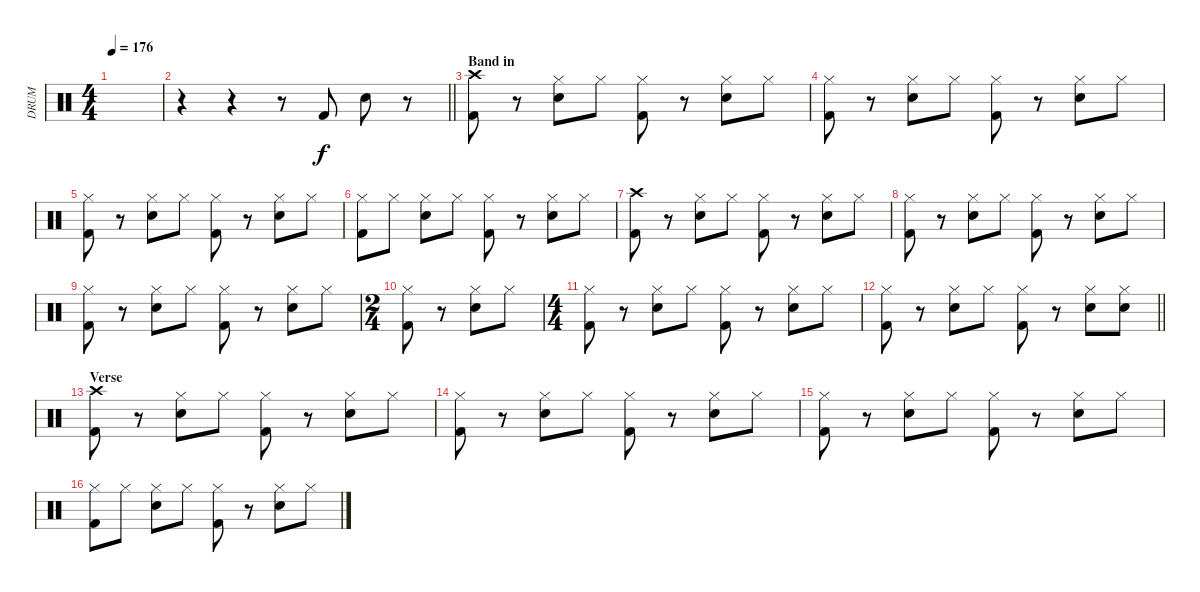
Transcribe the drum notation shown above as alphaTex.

\track ("DRUM" "DRUM") {instrument percussion}
\staff {score}
\articulation defaults
\ts (4 4)
\tempo 176
\clef neutral
\ks c
|
\barLineRight lightlight
r.4 r.4 r.8 "Kick (hit) 2".8 "Electric Snare (hit)".8 r.8 |
\section ("" "Band in")
("Crash high (hit)" "Kick (hit) 2").8 r.8 ("Hi-Hat (closed)" "Electric Snare (hit)").8 "Hi-Hat (closed)".8 ("Hi-Hat (closed)" "Kick (hit) 2").8 r.8 ("Hi-Hat (closed)" "Electric Snare (hit)").8 "Hi-Hat (closed)".8 |
("Hi-Hat (closed)" "Kick (hit) 2").8 r.8 ("Hi-Hat (closed)" "Electric Snare (hit)").8 "Hi-Hat (closed)".8 ("Hi-Hat (closed)" "Kick (hit) 2").8 r.8 ("Hi-Hat (closed)" "Electric Snare (hit)").8 "Hi-Hat (closed)".8 |
("Hi-Hat (closed)" "Kick (hit) 2").8 r.8 ("Hi-Hat (closed)" "Electric Snare (hit)").8 "Hi-Hat (closed)".8 ("Hi-Hat (closed)" "Kick (hit) 2").8 r.8 ("Hi-Hat (closed)" "Electric Snare (hit)").8 "Hi-Hat (closed)".8 |
("Hi-Hat (closed)" "Kick (hit) 2").8 "Hi-Hat (closed)".8 ("Hi-Hat (closed)" "Electric Snare (hit)").8 "Hi-Hat (closed)".8 ("Hi-Hat (closed)" "Kick (hit) 2").8 r.8 ("Hi-Hat (closed)" "Electric Snare (hit)").8 "Hi-Hat (closed)".8 |
("Crash high (hit)" "Kick (hit) 2").8 r.8 ("Hi-Hat (closed)" "Electric Snare (hit)").8 "Hi-Hat (closed)".8 ("Hi-Hat (closed)" "Kick (hit) 2").8 r.8 ("Hi-Hat (closed)" "Electric Snare (hit)").8 "Hi-Hat (closed)".8 |
("Hi-Hat (closed)" "Kick (hit) 2").8 r.8 ("Hi-Hat (closed)" "Electric Snare (hit)").8 "Hi-Hat (closed)".8 ("Hi-Hat (closed)" "Kick (hit) 2").8 r.8 ("Hi-Hat (closed)" "Electric Snare (hit)").8 "Hi-Hat (closed)".8 |
("Hi-Hat (closed)" "Kick (hit) 2").8 r.8 ("Hi-Hat (closed)" "Electric Snare (hit)").8 "Hi-Hat (closed)".8 ("Hi-Hat (closed)" "Kick (hit) 2").8 r.8 ("Hi-Hat (closed)" "Electric Snare (hit)").8 "Hi-Hat (closed)".8 |
\ts (2 4)
("Hi-Hat (closed)" "Kick (hit) 2").8 r.8 ("Hi-Hat (closed)" "Electric Snare (hit)").8 "Hi-Hat (closed)".8 |
\ts (4 4)
("Hi-Hat (closed)" "Kick (hit) 2").8 r.8 ("Hi-Hat (closed)" "Electric Snare (hit)").8 "Hi-Hat (closed)".8 ("Hi-Hat (closed)" "Kick (hit) 2").8 r.8 ("Hi-Hat (closed)" "Electric Snare (hit)").8 "Hi-Hat (closed)".8 |
\barLineRight lightlight
("Hi-Hat (closed)" "Kick (hit) 2").8 r.8 ("Hi-Hat (closed)" "Electric Snare (hit)").8 "Hi-Hat (closed)".8 ("Hi-Hat (closed)" "Kick (hit) 2").8 r.8 ("Hi-Hat (closed)" "Electric Snare (hit)").8 ("Hi-Hat (closed)" "Electric Snare (hit)").8 |
\section ("" "Verse")
("Crash high (hit)" "Kick (hit) 2").8 r.8 ("Hi-Hat (closed)" "Electric Snare (hit)").8 "Hi-Hat (closed)".8 ("Hi-Hat (closed)" "Kick (hit) 2").8 r.8 ("Hi-Hat (closed)" "Electric Snare (hit)").8 "Hi-Hat (closed)".8 |
("Hi-Hat (closed)" "Kick (hit) 2").8 r.8 ("Hi-Hat (closed)" "Electric Snare (hit)").8 "Hi-Hat (closed)".8 ("Hi-Hat (closed)" "Kick (hit) 2").8 r.8 ("Hi-Hat (closed)" "Electric Snare (hit)").8 "Hi-Hat (closed)".8 |
("Hi-Hat (closed)" "Kick (hit) 2").8 r.8 ("Hi-Hat (closed)" "Electric Snare (hit)").8 "Hi-Hat (closed)".8 ("Hi-Hat (closed)" "Kick (hit) 2").8 r.8 ("Hi-Hat (closed)" "Electric Snare (hit)").8 "Hi-Hat (closed)".8 |
("Hi-Hat (closed)" "Kick (hit) 2").8 "Hi-Hat (closed)".8 ("Hi-Hat (closed)" "Electric Snare (hit)").8 "Hi-Hat (closed)".8 ("Hi-Hat (closed)" "Kick (hit) 2").8 r.8 ("Hi-Hat (closed)" "Electric Snare (hit)").8 "Hi-Hat (closed)".8
